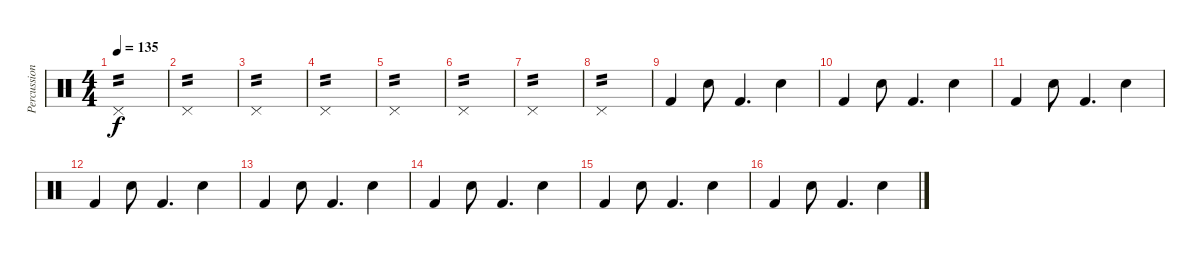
\track ("Percussion" "Percussion") {instrument percussion}
\staff {score}
\articulation defaults
\ts (4 4)
\tempo 135
\clef neutral
\ks c "Pedal Hi-Hat (hit)".1{tp 2 dy f}
|
"Pedal Hi-Hat (hit)".1{tp 2} |
"Pedal Hi-Hat (hit)".1{tp 2} |
"Pedal Hi-Hat (hit)".1{tp 2} |
"Pedal Hi-Hat (hit)".1{tp 2} |
"Pedal Hi-Hat (hit)".1{tp 2} |
"Pedal Hi-Hat (hit)".1{tp 2} |
"Pedal Hi-Hat (hit)".1{tp 2} |
"Kick (hit) 2".4 "Snare (hit) 2".8 "Kick (hit) 2".4{d} "Snare (hit) 2".4 |
"Kick (hit) 2".4 "Snare (hit) 2".8 "Kick (hit) 2".4{d} "Snare (hit) 2".4 |
"Kick (hit) 2".4 "Snare (hit) 2".8 "Kick (hit) 2".4{d} "Snare (hit) 2".4 |
"Kick (hit) 2".4 "Snare (hit) 2".8 "Kick (hit) 2".4{d} "Snare (hit) 2".4 |
"Kick (hit) 2".4 "Snare (hit) 2".8 "Kick (hit) 2".4{d} "Snare (hit) 2".4 |
"Kick (hit) 2".4 "Snare (hit) 2".8 "Kick (hit) 2".4{d} "Snare (hit) 2".4 |
"Kick (hit) 2".4 "Snare (hit) 2".8 "Kick (hit) 2".4{d} "Snare (hit) 2".4 |
"Kick (hit) 2".4 "Snare (hit) 2".8 "Kick (hit) 2".4{d} "Snare (hit) 2".4
